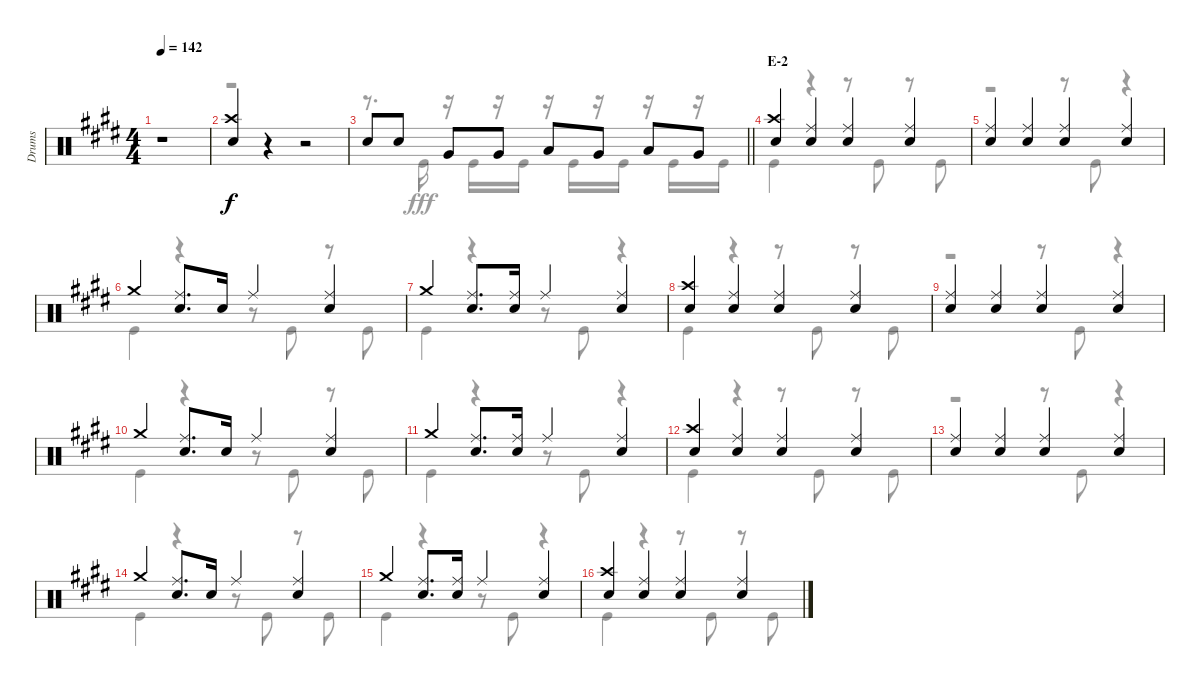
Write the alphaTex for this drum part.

\track ("Drums" "Drums") {instrument percussion}
\staff {score}
\articulation defaults
\voice
\ts (4 4)
\tempo 142
\clef neutral
\ks e
r.1{dy f} |
("Crash high (hit)" "Snare (hit) 2").4 r.4 r.2 |
\barLineRight lightlight "Snare (hit) 2".8 "Snare (hit) 2".8 "Very Low Tom (hit)".8 "Very Low Tom (hit)".8 "Low Tom (hit)".8 "Very Low Tom (hit)".8 "Low Tom (hit)".8 "Very Low Tom (hit)".8
|
\section ("" "E-2")
("Crash high (hit)" "Snare (hit) 2").4 ("Ride (middle)" "Snare (hit) 2").4 ("Ride (middle)" "Snare (hit) 2").4 ("Ride (middle)" "Snare (hit) 2").4 |
("Ride (middle)" "Snare (hit) 2").4 ("Ride (middle)" "Snare (hit) 2").4 ("Ride (middle)" "Snare (hit) 2").4 ("Ride (middle)" "Snare (hit) 2").4 |
"Crash medium (hit)".4 ("Ride (middle)" "Snare (hit) 2").8{d} "Snare (hit) 2".16 "Ride (middle)".4 ("Ride (middle)" "Snare (hit) 2").4 |
"Crash medium (hit)".4 ("Ride (middle)" "Snare (hit) 2").8{d} ("Ride (middle)" "Snare (hit) 2").16 "Ride (middle)".4 ("Ride (middle)" "Snare (hit) 2").4 |
("Crash high (hit)" "Snare (hit) 2").4 ("Ride (middle)" "Snare (hit) 2").4 ("Ride (middle)" "Snare (hit) 2").4 ("Ride (middle)" "Snare (hit) 2").4 |
("Ride (middle)" "Snare (hit) 2").4 ("Ride (middle)" "Snare (hit) 2").4 ("Ride (middle)" "Snare (hit) 2").4 ("Ride (middle)" "Snare (hit) 2").4 |
"Crash medium (hit)".4 ("Ride (middle)" "Snare (hit) 2").8{d} "Snare (hit) 2".16 "Ride (middle)".4 ("Ride (middle)" "Snare (hit) 2").4 |
"Crash medium (hit)".4 ("Ride (middle)" "Snare (hit) 2").8{d} ("Ride (middle)" "Snare (hit) 2").16 "Ride (middle)".4 ("Ride (middle)" "Snare (hit) 2").4 |
("Crash high (hit)" "Snare (hit) 2").4 ("Ride (middle)" "Snare (hit) 2").4 ("Ride (middle)" "Snare (hit) 2").4 ("Ride (middle)" "Snare (hit) 2").4 |
("Ride (middle)" "Snare (hit) 2").4 ("Ride (middle)" "Snare (hit) 2").4 ("Ride (middle)" "Snare (hit) 2").4 ("Ride (middle)" "Snare (hit) 2").4 |
"Crash medium (hit)".4 ("Ride (middle)" "Snare (hit) 2").8{d} "Snare (hit) 2".16 "Ride (middle)".4 ("Ride (middle)" "Snare (hit) 2").4 |
"Crash medium (hit)".4 ("Ride (middle)" "Snare (hit) 2").8{d} ("Ride (middle)" "Snare (hit) 2").16 "Ride (middle)".4 ("Ride (middle)" "Snare (hit) 2").4 |
("Crash high (hit)" "Snare (hit) 2").4 ("Ride (middle)" "Snare (hit) 2").4 ("Ride (middle)" "Snare (hit) 2").4 ("Ride (middle)" "Snare (hit) 2").4
\voice
\clef neutral
\ottava regular
\simile none
\ks e
r.1{dy fff} |
r.1 |
\barLineRight lightlight
r.8{d} "Kick (hit)".16 r.16 "Kick (hit)".16 r.16 "Kick (hit)".16 r.16 "Kick (hit)".16 r.16 "Kick (hit)".16 r.16 "Kick (hit)".16 r.16 "Kick (hit)".16 |
"Kick (hit)".4 r.4 r.8 "Kick (hit)".8 r.8 "Kick (hit)".8 |
r.2 r.8 "Kick (hit)".8 r.4 |
"Kick (hit)".4 r.4 r.8 "Kick (hit)".8 r.8 "Kick (hit)".8 |
"Kick (hit)".4 r.4 r.8 "Kick (hit)".8 r.4 |
"Kick (hit)".4 r.4 r.8 "Kick (hit)".8 r.8 "Kick (hit)".8 |
r.2 r.8 "Kick (hit)".8 r.4 |
"Kick (hit)".4 r.4 r.8 "Kick (hit)".8 r.8 "Kick (hit)".8 |
"Kick (hit)".4 r.4 r.8 "Kick (hit)".8 r.4 |
"Kick (hit)".4 r.4 r.8 "Kick (hit)".8 r.8 "Kick (hit)".8 |
r.2 r.8 "Kick (hit)".8 r.4 |
"Kick (hit)".4 r.4 r.8 "Kick (hit)".8 r.8 "Kick (hit)".8 |
"Kick (hit)".4 r.4 r.8 "Kick (hit)".8 r.4 |
"Kick (hit)".4 r.4 r.8 "Kick (hit)".8 r.8 "Kick (hit)".8
